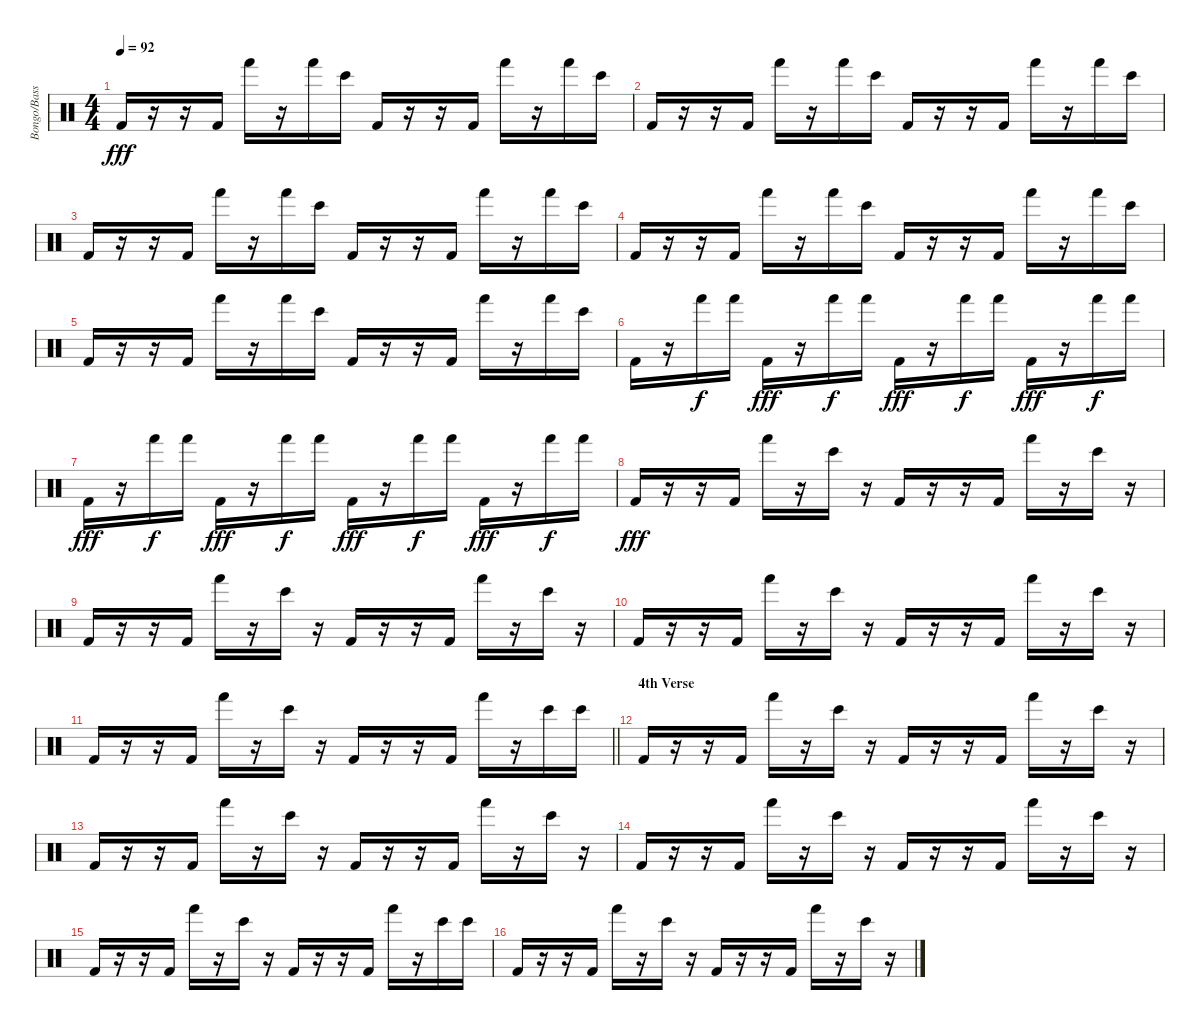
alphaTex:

\track ("Bongo/Bass Drum" "Bongo/Bass") {instrument percussion}
\staff
\articulation defaults
\ts (4 4)
\tempo 92
\clef neutral
\ks c "Kick (hit) 2".16{dy fff}
r.16 r.16 "Kick (hit) 2".16 "Hand (hit)".16 r.16 "Hand (hit)".16 "Bongo High (hit)".16 "Kick (hit) 2".16 r.16 r.16 "Kick (hit) 2".16 "Hand (hit)".16 r.16 "Hand (hit)".16 "Bongo High (hit)".16 |
"Kick (hit) 2".16 r.16 r.16 "Kick (hit) 2".16 "Hand (hit)".16 r.16 "Hand (hit)".16 "Bongo High (hit)".16 "Kick (hit) 2".16 r.16 r.16 "Kick (hit) 2".16 "Hand (hit)".16 r.16 "Hand (hit)".16 "Bongo High (hit)".16 |
"Kick (hit) 2".16 r.16 r.16 "Kick (hit) 2".16 "Hand (hit)".16 r.16 "Hand (hit)".16 "Bongo High (hit)".16 "Kick (hit) 2".16 r.16 r.16 "Kick (hit) 2".16 "Hand (hit)".16 r.16 "Hand (hit)".16 "Bongo High (hit)".16 |
"Kick (hit) 2".16 r.16 r.16 "Kick (hit) 2".16 "Hand (hit)".16 r.16 "Hand (hit)".16 "Bongo High (hit)".16 "Kick (hit) 2".16 r.16 r.16 "Kick (hit) 2".16 "Hand (hit)".16 r.16 "Hand (hit)".16 "Bongo High (hit)".16 |
"Kick (hit) 2".16 r.16 r.16 "Kick (hit) 2".16 "Hand (hit)".16 r.16 "Hand (hit)".16 "Bongo High (hit)".16 "Kick (hit) 2".16 r.16 r.16 "Kick (hit) 2".16 "Hand (hit)".16 r.16 "Hand (hit)".16 "Bongo High (hit)".16 |
"Kick (hit) 2".16 r.16 "Hand (hit)".16{dy f} "Hand (hit)".16 "Kick (hit) 2".16{dy fff} r.16 "Hand (hit)".16{dy f} "Hand (hit)".16 "Kick (hit) 2".16{dy fff} r.16 "Hand (hit)".16{dy f} "Hand (hit)".16 "Kick (hit) 2".16{dy fff} r.16 "Hand (hit)".16{dy f} "Hand (hit)".16 |
"Kick (hit) 2".16{dy fff} r.16 "Hand (hit)".16{dy f} "Hand (hit)".16 "Kick (hit) 2".16{dy fff} r.16 "Hand (hit)".16{dy f} "Hand (hit)".16 "Kick (hit) 2".16{dy fff} r.16 "Hand (hit)".16{dy f} "Hand (hit)".16 "Kick (hit) 2".16{dy fff} r.16 "Hand (hit)".16{dy f} "Hand (hit)".16 |
"Kick (hit) 2".16{dy fff} r.16 r.16 "Kick (hit) 2".16 "Hand (hit)".16 r.16 "Bongo High (hit)".16 r.16 "Kick (hit) 2".16 r.16 r.16 "Kick (hit) 2".16 "Hand (hit)".16 r.16 "Bongo High (hit)".16 r.16 |
"Kick (hit) 2".16 r.16 r.16 "Kick (hit) 2".16 "Hand (hit)".16 r.16 "Bongo High (hit)".16 r.16 "Kick (hit) 2".16 r.16 r.16 "Kick (hit) 2".16 "Hand (hit)".16 r.16 "Bongo High (hit)".16 r.16 |
"Kick (hit) 2".16 r.16 r.16 "Kick (hit) 2".16 "Hand (hit)".16 r.16 "Bongo High (hit)".16 r.16 "Kick (hit) 2".16 r.16 r.16 "Kick (hit) 2".16 "Hand (hit)".16 r.16 "Bongo High (hit)".16 r.16 |
\barLineRight lightlight "Kick (hit) 2".16
r.16 r.16 "Kick (hit) 2".16 "Hand (hit)".16 r.16 "Bongo High (hit)".16 r.16 "Kick (hit) 2".16 r.16 r.16 "Kick (hit) 2".16 "Hand (hit)".16 r.16 "Bongo High (hit)".16 "Bongo High (hit)".16 |
\section ("" "4th Verse")
"Kick (hit) 2".16 r.16 r.16 "Kick (hit) 2".16 "Hand (hit)".16 r.16 "Bongo High (hit)".16 r.16 "Kick (hit) 2".16 r.16 r.16 "Kick (hit) 2".16 "Hand (hit)".16 r.16 "Bongo High (hit)".16 r.16 |
"Kick (hit) 2".16 r.16 r.16 "Kick (hit) 2".16 "Hand (hit)".16 r.16 "Bongo High (hit)".16 r.16 "Kick (hit) 2".16 r.16 r.16 "Kick (hit) 2".16 "Hand (hit)".16 r.16 "Bongo High (hit)".16 r.16 |
"Kick (hit) 2".16 r.16 r.16 "Kick (hit) 2".16 "Hand (hit)".16 r.16 "Bongo High (hit)".16 r.16 "Kick (hit) 2".16 r.16 r.16 "Kick (hit) 2".16 "Hand (hit)".16 r.16 "Bongo High (hit)".16 r.16 |
"Kick (hit) 2".16 r.16 r.16 "Kick (hit) 2".16 "Hand (hit)".16 r.16 "Bongo High (hit)".16 r.16 "Kick (hit) 2".16 r.16 r.16 "Kick (hit) 2".16 "Hand (hit)".16 r.16 "Bongo High (hit)".16 "Bongo High (hit)".16 |
"Kick (hit) 2".16 r.16 r.16 "Kick (hit) 2".16 "Hand (hit)".16 r.16 "Bongo High (hit)".16 r.16 "Kick (hit) 2".16 r.16 r.16 "Kick (hit) 2".16 "Hand (hit)".16 r.16 "Bongo High (hit)".16 r.16
